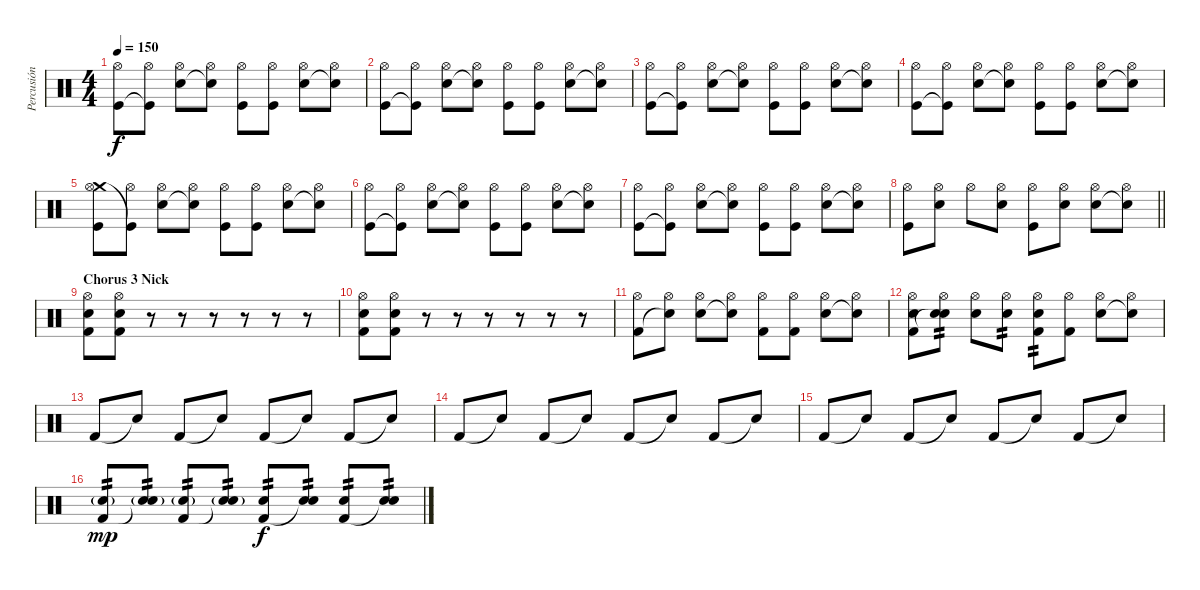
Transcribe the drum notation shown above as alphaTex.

\track ("Percusión" "Percusión") {instrument percussion}
\staff {score}
\articulation defaults
\ts (4 4)
\tempo 150
\clef neutral
\ks c
("Hi-Hat (open)" "Kick (hit)").8{dy f} ("Hi-Hat (open)" "Kick (hit)"{t}).8 ("Hi-Hat (open)" "Electric Snare (hit)").8 ("Hi-Hat (open)" "Snare (hit)"{t}).8 ("Hi-Hat (open)" "Kick (hit)").8 ("Hi-Hat (open)" "Kick (hit)").8 ("Hi-Hat (open)" "Electric Snare (hit)").8 ("Hi-Hat (open)" "Snare (hit)"{t}).8 |
("Hi-Hat (open)" "Kick (hit)").8 ("Hi-Hat (open)" "Kick (hit)"{t}).8 ("Hi-Hat (open)" "Electric Snare (hit)").8 ("Hi-Hat (open)" "Snare (hit)"{t}).8 ("Hi-Hat (open)" "Kick (hit)").8 ("Hi-Hat (open)" "Kick (hit)").8 ("Hi-Hat (open)" "Electric Snare (hit)").8 ("Hi-Hat (open)" "Snare (hit)"{t}).8 |
("Hi-Hat (open)" "Kick (hit)").8 ("Hi-Hat (open)" "Kick (hit)"{t}).8 ("Hi-Hat (open)" "Electric Snare (hit)").8 ("Hi-Hat (open)" "Snare (hit)"{t}).8 ("Hi-Hat (open)" "Kick (hit)").8 ("Hi-Hat (open)" "Kick (hit)").8 ("Hi-Hat (open)" "Electric Snare (hit)").8 ("Hi-Hat (open)" "Snare (hit)"{t}).8 |
("Hi-Hat (open)" "Kick (hit)").8 ("Hi-Hat (open)" "Kick (hit)"{t}).8 ("Hi-Hat (open)" "Electric Snare (hit)").8 ("Hi-Hat (open)" "Snare (hit)"{t}).8 ("Hi-Hat (open)" "Kick (hit)").8 ("Hi-Hat (open)" "Kick (hit)").8 ("Hi-Hat (open)" "Electric Snare (hit)").8 ("Hi-Hat (open)" "Snare (hit)"{t}).8 |
("Crash medium (hit)" "Hi-Hat (open)" "Kick (hit)").8 ("Hi-Hat (open)" "Kick (hit)"{t}).8 ("Hi-Hat (open)" "Electric Snare (hit)").8 ("Hi-Hat (open)" "Snare (hit)"{t}).8 ("Hi-Hat (open)" "Kick (hit)").8 ("Hi-Hat (open)" "Kick (hit)").8 ("Hi-Hat (open)" "Electric Snare (hit)").8 ("Hi-Hat (open)" "Snare (hit)"{t}).8 |
("Hi-Hat (open)" "Kick (hit)").8 ("Hi-Hat (open)" "Kick (hit)"{t}).8 ("Hi-Hat (open)" "Electric Snare (hit)").8 ("Hi-Hat (open)" "Snare (hit)"{t}).8 ("Hi-Hat (open)" "Kick (hit)").8 ("Hi-Hat (open)" "Kick (hit)").8 ("Hi-Hat (open)" "Electric Snare (hit)").8 ("Hi-Hat (open)" "Snare (hit)"{t}).8 |
("Hi-Hat (open)" "Kick (hit)").8 ("Hi-Hat (open)" "Kick (hit)"{t}).8 ("Hi-Hat (open)" "Electric Snare (hit)").8 ("Hi-Hat (open)" "Snare (hit)"{t}).8 ("Hi-Hat (open)" "Kick (hit)").8 ("Hi-Hat (open)" "Kick (hit)").8 ("Hi-Hat (open)" "Electric Snare (hit)").8 ("Hi-Hat (open)" "Snare (hit)"{t}).8 |
\barLineRight lightlight
("Hi-Hat (open)" "Kick (hit)").8 ("Hi-Hat (open)" "Electric Snare (hit)").8 "Hi-Hat (open)".8 ("Hi-Hat (open)" "Electric Snare (hit)").8 ("Hi-Hat (open)" "Kick (hit)").8 ("Hi-Hat (open)" "Electric Snare (hit)").8 ("Hi-Hat (open)" "Electric Snare (hit)").8 ("Hi-Hat (open)" "Snare (hit)"{t}).8 |
\section ("" "Chorus 3 Nick")
("Hi-Hat (open)" "Electric Snare (hit)" "Kick (hit) 2").8 ("Hi-Hat (open)" "Electric Snare (hit)" "Kick (hit) 2").8 r.8 r.8 r.8 r.8 r.8 r.8 |
("Hi-Hat (open)" "Electric Snare (hit)" "Kick (hit) 2").8 ("Hi-Hat (open)" "Electric Snare (hit)" "Kick (hit) 2").8 r.8 r.8 r.8 r.8 r.8 r.8 |
("Hi-Hat (open)" "Kick (hit) 2").8 ("Hi-Hat (open)" "Snare (hit)"{t}).8 ("Hi-Hat (open)" "Electric Snare (hit)").8 ("Hi-Hat (open)" "Snare (hit)"{t}).8 ("Hi-Hat (open)" "Kick (hit) 2").8 ("Hi-Hat (open)" "Kick (hit) 2").8 ("Hi-Hat (open)" "Electric Snare (hit)").8 ("Hi-Hat (open)" "Snare (hit)"{t}).8 |
("Hi-Hat (open)" "Electric Snare (hit)" "Kick (hit) 2").8 ("Hi-Hat (open)" "Electric Snare (hit)" "Snare (hit)"{t}).8{tp 2} ("Hi-Hat (open)" "Electric Snare (hit)").8 ("Hi-Hat (open)" "Electric Snare (hit)").8{tp 2} ("Hi-Hat (open)" "Electric Snare (hit)" "Kick (hit) 2").8{tp 2} ("Hi-Hat (open)" "Kick (hit) 2").8 ("Hi-Hat (open)" "Electric Snare (hit)").8 ("Hi-Hat (open)" "Snare (hit)"{t}).8 |
"Kick (hit) 2".8 "Snare (hit)"{t}.8 "Kick (hit) 2".8 "Snare (hit)"{t}.8 "Kick (hit) 2".8 "Snare (hit)"{t}.8 "Kick (hit) 2".8 "Snare (hit)"{t}.8 |
"Kick (hit) 2".8 "Snare (hit)"{t}.8 "Kick (hit) 2".8 "Snare (hit)"{t}.8 "Kick (hit) 2".8 "Snare (hit)"{t}.8 "Kick (hit) 2".8 "Snare (hit)"{t}.8 |
"Kick (hit) 2".8 "Snare (hit)"{t}.8 "Kick (hit) 2".8 "Snare (hit)"{t}.8 "Kick (hit) 2".8 "Snare (hit)"{t}.8 "Kick (hit) 2".8 "Snare (hit)"{t}.8 |
("Electric Snare (hit)"{g} "Kick (hit) 2").8{tp 2 dy mp} ("Electric Snare (hit)"{g} "Snare (hit)"{t}).8{tp 2} ("Electric Snare (hit)"{g} "Kick (hit) 2").8{tp 2} ("Electric Snare (hit)"{g} "Snare (hit)"{t}).8{tp 2} ("Electric Snare (hit)" "Kick (hit) 2").8{tp 2 dy f} ("Electric Snare (hit)" "Snare (hit)"{t}).8{tp 2} ("Electric Snare (hit)" "Kick (hit) 2").8{tp 2} ("Electric Snare (hit)" "Snare (hit)"{t}).8{tp 2}
